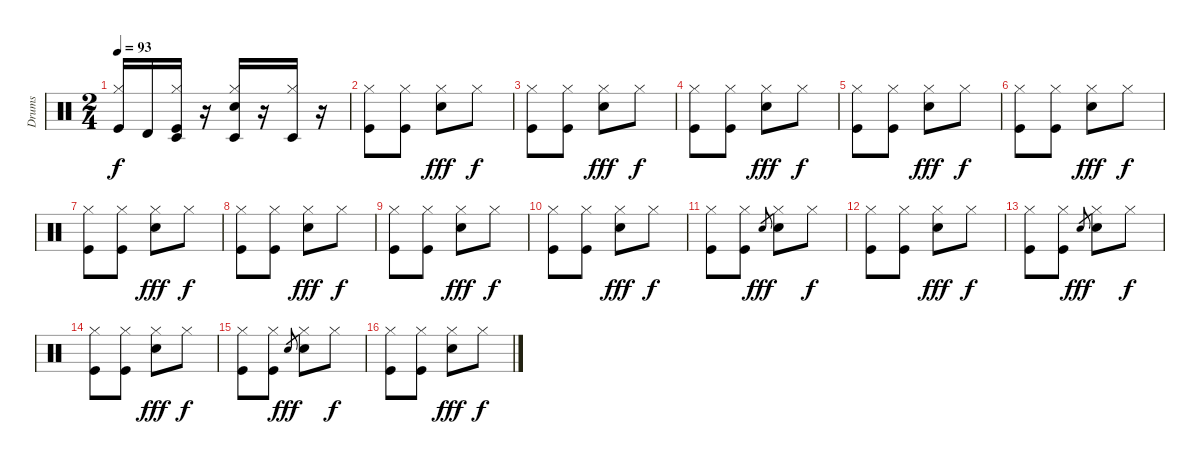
\track ("Drums" "Drums") {instrument percussion}
\staff {score}
\articulation defaults
\ts (2 4)
\tempo 93
\clef neutral
\ks c
("Hi-Hat (closed)" "Kick (hit)").16{dy f} "Timbale high (hit)".16 ("Hi-Hat (closed)" "Timbale low (hit)" "Kick (hit)").16 r.16 ("Hi-Hat (closed)" "Snare (hit) 2" "Timbale low (hit)").16 r.16 ("Hi-Hat (closed)" "Timbale low (hit)").16 r.16 |
("Hi-Hat (closed)" "Kick (hit)").8 ("Hi-Hat (closed)" "Kick (hit)").8 ("Hi-Hat (closed)" "Snare (hit) 2").8{dy fff} "Hi-Hat (closed)".8{dy f} |
("Hi-Hat (closed)" "Kick (hit)").8 ("Hi-Hat (closed)" "Kick (hit)").8 ("Hi-Hat (closed)" "Snare (hit) 2").8{dy fff} "Hi-Hat (closed)".8{dy f} |
("Hi-Hat (closed)" "Kick (hit)").8 ("Hi-Hat (closed)" "Kick (hit)").8 ("Hi-Hat (closed)" "Snare (hit) 2").8{dy fff} "Hi-Hat (closed)".8{dy f} |
("Hi-Hat (closed)" "Kick (hit)").8 ("Hi-Hat (closed)" "Kick (hit)").8 ("Hi-Hat (closed)" "Snare (hit) 2").8{dy fff} "Hi-Hat (closed)".8{dy f} |
("Hi-Hat (closed)" "Kick (hit)").8 ("Hi-Hat (closed)" "Kick (hit)").8 ("Hi-Hat (closed)" "Snare (hit) 2").8{dy fff} "Hi-Hat (closed)".8{dy f} |
("Hi-Hat (closed)" "Kick (hit)").8 ("Hi-Hat (closed)" "Kick (hit)").8 ("Hi-Hat (closed)" "Snare (hit) 2").8{dy fff} "Hi-Hat (closed)".8{dy f} |
("Hi-Hat (closed)" "Kick (hit)").8 ("Hi-Hat (closed)" "Kick (hit)").8 ("Hi-Hat (closed)" "Snare (hit) 2").8{dy fff} "Hi-Hat (closed)".8{dy f} |
("Hi-Hat (closed)" "Kick (hit)").8 ("Hi-Hat (closed)" "Kick (hit)").8 ("Hi-Hat (closed)" "Snare (hit) 2").8{dy fff} "Hi-Hat (closed)".8{dy f} |
("Hi-Hat (closed)" "Kick (hit)").8 ("Hi-Hat (closed)" "Kick (hit)").8 ("Hi-Hat (closed)" "Snare (hit) 2").8{dy fff} "Hi-Hat (closed)".8{dy f} |
("Hi-Hat (closed)" "Kick (hit)").8 ("Hi-Hat (closed)" "Kick (hit)").8 "Snare (hit) 2"{h}.8{gr dy fff} ("Hi-Hat (closed)" "Snare (hit) 2").8 "Hi-Hat (closed)".8{dy f} |
("Hi-Hat (closed)" "Kick (hit)").8 ("Hi-Hat (closed)" "Kick (hit)").8 ("Hi-Hat (closed)" "Snare (hit) 2").8{dy fff} "Hi-Hat (closed)".8{dy f} |
("Hi-Hat (closed)" "Kick (hit)").8 ("Hi-Hat (closed)" "Kick (hit)").8 "Snare (hit) 2"{h}.8{gr dy fff} ("Hi-Hat (closed)" "Snare (hit) 2").8 "Hi-Hat (closed)".8{dy f} |
("Hi-Hat (closed)" "Kick (hit)").8 ("Hi-Hat (closed)" "Kick (hit)").8 ("Hi-Hat (closed)" "Snare (hit) 2").8{dy fff} "Hi-Hat (closed)".8{dy f} |
("Hi-Hat (closed)" "Kick (hit)").8 ("Hi-Hat (closed)" "Kick (hit)").8 "Snare (hit) 2"{h}.8{gr dy fff} ("Hi-Hat (closed)" "Snare (hit) 2").8 "Hi-Hat (closed)".8{dy f} |
("Hi-Hat (closed)" "Kick (hit)").8 ("Hi-Hat (closed)" "Kick (hit)").8 ("Hi-Hat (closed)" "Snare (hit) 2").8{dy fff} "Hi-Hat (closed)".8{dy f}
